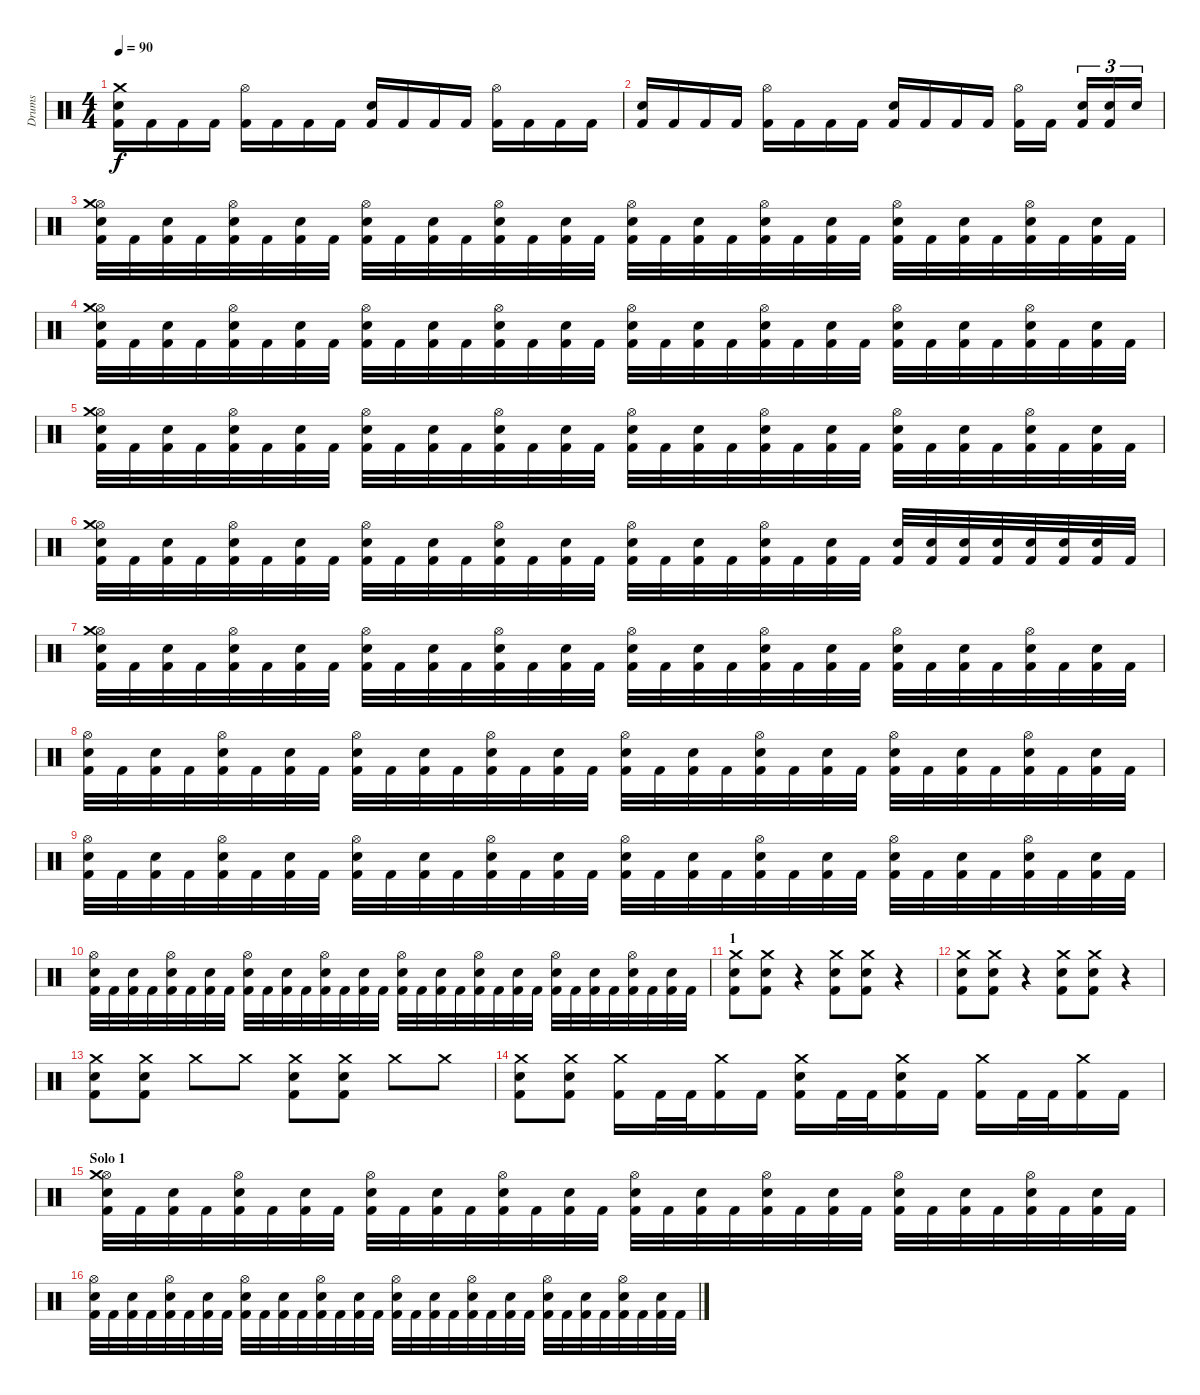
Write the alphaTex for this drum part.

\track ("Drums" "Drums") {instrument percussion}
\staff {score}
\articulation defaults
\ts (4 4)
\tempo 90
\clef neutral
\ks c
("Kick (hit) 2" "Snare (hit) 2" "Crash medium (hit)").16{dy f} "Kick (hit) 2".16 "Kick (hit) 2".16 "Kick (hit) 2".16 ("Kick (hit) 2" "Hi-Hat (open)").16 "Kick (hit) 2".16 "Kick (hit) 2".16 "Kick (hit) 2".16 ("Kick (hit) 2" "Snare (hit) 2").16 "Kick (hit) 2".16 "Kick (hit) 2".16 "Kick (hit) 2".16 ("Kick (hit) 2" "Hi-Hat (open)").16 "Kick (hit) 2".16 "Kick (hit) 2".16 "Kick (hit) 2".16 |
("Kick (hit) 2" "Snare (hit) 2").16 "Kick (hit) 2".16 "Kick (hit) 2".16 "Kick (hit) 2".16 ("Kick (hit) 2" "Hi-Hat (open)").16 "Kick (hit) 2".16 "Kick (hit) 2".16 "Kick (hit) 2".16 ("Kick (hit) 2" "Snare (hit) 2").16 "Kick (hit) 2".16 "Kick (hit) 2".16 "Kick (hit) 2".16 ("Kick (hit) 2" "Hi-Hat (open)").16 "Kick (hit) 2".16 ("Kick (hit) 2" "Snare (hit) 2").16{tu (3 2)} ("Kick (hit) 2" "Snare (hit) 2").16{tu (3 2)} "Snare (hit) 2".16{tu (3 2)} |
("Kick (hit) 2" "Hi-Hat (open)" "Snare (hit) 2" "Crash medium (hit)").32 "Kick (hit) 2".32 ("Kick (hit) 2" "Snare (hit) 2").32 "Kick (hit) 2".32 ("Kick (hit) 2" "Hi-Hat (open)" "Snare (hit) 2").32 "Kick (hit) 2".32 ("Kick (hit) 2" "Snare (hit) 2").32 "Kick (hit) 2".32 ("Kick (hit) 2" "Hi-Hat (open)" "Snare (hit) 2").32 "Kick (hit) 2".32 ("Kick (hit) 2" "Snare (hit) 2").32 "Kick (hit) 2".32 ("Kick (hit) 2" "Hi-Hat (open)" "Snare (hit) 2").32 "Kick (hit) 2".32 ("Kick (hit) 2" "Snare (hit) 2").32 "Kick (hit) 2".32 ("Kick (hit) 2" "Hi-Hat (open)" "Snare (hit) 2").32 "Kick (hit) 2".32 ("Kick (hit) 2" "Snare (hit) 2").32 "Kick (hit) 2".32 ("Kick (hit) 2" "Hi-Hat (open)" "Snare (hit) 2").32 "Kick (hit) 2".32 ("Kick (hit) 2" "Snare (hit) 2").32 "Kick (hit) 2".32 ("Kick (hit) 2" "Hi-Hat (open)" "Snare (hit) 2").32 "Kick (hit) 2".32 ("Kick (hit) 2" "Snare (hit) 2").32 "Kick (hit) 2".32 ("Kick (hit) 2" "Hi-Hat (open)" "Snare (hit) 2").32 "Kick (hit) 2".32 ("Kick (hit) 2" "Snare (hit) 2").32 "Kick (hit) 2".32 |
("Kick (hit) 2" "Hi-Hat (open)" "Snare (hit) 2" "Crash medium (hit)").32 "Kick (hit) 2".32 ("Kick (hit) 2" "Snare (hit) 2").32 "Kick (hit) 2".32 ("Kick (hit) 2" "Hi-Hat (open)" "Snare (hit) 2").32 "Kick (hit) 2".32 ("Kick (hit) 2" "Snare (hit) 2").32 "Kick (hit) 2".32 ("Kick (hit) 2" "Hi-Hat (open)" "Snare (hit) 2").32 "Kick (hit) 2".32 ("Kick (hit) 2" "Snare (hit) 2").32 "Kick (hit) 2".32 ("Kick (hit) 2" "Hi-Hat (open)" "Snare (hit) 2").32 "Kick (hit) 2".32 ("Kick (hit) 2" "Snare (hit) 2").32 "Kick (hit) 2".32 ("Kick (hit) 2" "Hi-Hat (open)" "Snare (hit) 2").32 "Kick (hit) 2".32 ("Kick (hit) 2" "Snare (hit) 2").32 "Kick (hit) 2".32 ("Kick (hit) 2" "Hi-Hat (open)" "Snare (hit) 2").32 "Kick (hit) 2".32 ("Kick (hit) 2" "Snare (hit) 2").32 "Kick (hit) 2".32 ("Kick (hit) 2" "Hi-Hat (open)" "Snare (hit) 2").32 "Kick (hit) 2".32 ("Kick (hit) 2" "Snare (hit) 2").32 "Kick (hit) 2".32 ("Kick (hit) 2" "Hi-Hat (open)" "Snare (hit) 2").32 "Kick (hit) 2".32 ("Kick (hit) 2" "Snare (hit) 2").32 "Kick (hit) 2".32 |
("Kick (hit) 2" "Hi-Hat (open)" "Snare (hit) 2" "Crash medium (hit)").32 "Kick (hit) 2".32 ("Kick (hit) 2" "Snare (hit) 2").32 "Kick (hit) 2".32 ("Kick (hit) 2" "Hi-Hat (open)" "Snare (hit) 2").32 "Kick (hit) 2".32 ("Kick (hit) 2" "Snare (hit) 2").32 "Kick (hit) 2".32 ("Kick (hit) 2" "Hi-Hat (open)" "Snare (hit) 2").32 "Kick (hit) 2".32 ("Kick (hit) 2" "Snare (hit) 2").32 "Kick (hit) 2".32 ("Kick (hit) 2" "Hi-Hat (open)" "Snare (hit) 2").32 "Kick (hit) 2".32 ("Kick (hit) 2" "Snare (hit) 2").32 "Kick (hit) 2".32 ("Kick (hit) 2" "Hi-Hat (open)" "Snare (hit) 2").32 "Kick (hit) 2".32 ("Kick (hit) 2" "Snare (hit) 2").32 "Kick (hit) 2".32 ("Kick (hit) 2" "Hi-Hat (open)" "Snare (hit) 2").32 "Kick (hit) 2".32 ("Kick (hit) 2" "Snare (hit) 2").32 "Kick (hit) 2".32 ("Kick (hit) 2" "Hi-Hat (open)" "Snare (hit) 2").32 "Kick (hit) 2".32 ("Kick (hit) 2" "Snare (hit) 2").32 "Kick (hit) 2".32 ("Kick (hit) 2" "Hi-Hat (open)" "Snare (hit) 2").32 "Kick (hit) 2".32 ("Kick (hit) 2" "Snare (hit) 2").32 "Kick (hit) 2".32 |
("Kick (hit) 2" "Hi-Hat (open)" "Snare (hit) 2" "Crash medium (hit)").32 "Kick (hit) 2".32 ("Kick (hit) 2" "Snare (hit) 2").32 "Kick (hit) 2".32 ("Kick (hit) 2" "Hi-Hat (open)" "Snare (hit) 2").32 "Kick (hit) 2".32 ("Kick (hit) 2" "Snare (hit) 2").32 "Kick (hit) 2".32 ("Kick (hit) 2" "Hi-Hat (open)" "Snare (hit) 2").32 "Kick (hit) 2".32 ("Kick (hit) 2" "Snare (hit) 2").32 "Kick (hit) 2".32 ("Kick (hit) 2" "Hi-Hat (open)" "Snare (hit) 2").32 "Kick (hit) 2".32 ("Kick (hit) 2" "Snare (hit) 2").32 "Kick (hit) 2".32 ("Kick (hit) 2" "Hi-Hat (open)" "Snare (hit) 2").32 "Kick (hit) 2".32 ("Kick (hit) 2" "Snare (hit) 2").32 "Kick (hit) 2".32 ("Kick (hit) 2" "Hi-Hat (open)" "Snare (hit) 2").32 "Kick (hit) 2".32 ("Kick (hit) 2" "Snare (hit) 2").32 "Kick (hit) 2".32 ("Kick (hit) 2" "Snare (hit) 2").32 ("Kick (hit) 2" "Snare (hit) 2").32 ("Kick (hit) 2" "Snare (hit) 2").32 ("Kick (hit) 2" "Snare (hit) 2").32 ("Kick (hit) 2" "Snare (hit) 2").32 ("Kick (hit) 2" "Snare (hit) 2").32 ("Kick (hit) 2" "Snare (hit) 2").32 "Kick (hit) 2".32 |
\section ("" "")
("Kick (hit) 2" "Hi-Hat (open)" "Snare (hit) 2" "Crash medium (hit)").32 "Kick (hit) 2".32 ("Kick (hit) 2" "Snare (hit) 2").32 "Kick (hit) 2".32 ("Kick (hit) 2" "Hi-Hat (open)" "Snare (hit) 2").32 "Kick (hit) 2".32 ("Kick (hit) 2" "Snare (hit) 2").32 "Kick (hit) 2".32 ("Kick (hit) 2" "Hi-Hat (open)" "Snare (hit) 2").32 "Kick (hit) 2".32 ("Kick (hit) 2" "Snare (hit) 2").32 "Kick (hit) 2".32 ("Kick (hit) 2" "Hi-Hat (open)" "Snare (hit) 2").32 "Kick (hit) 2".32 ("Kick (hit) 2" "Snare (hit) 2").32 "Kick (hit) 2".32 ("Kick (hit) 2" "Hi-Hat (open)" "Snare (hit) 2").32 "Kick (hit) 2".32 ("Kick (hit) 2" "Snare (hit) 2").32 "Kick (hit) 2".32 ("Kick (hit) 2" "Hi-Hat (open)" "Snare (hit) 2").32 "Kick (hit) 2".32 ("Kick (hit) 2" "Snare (hit) 2").32 "Kick (hit) 2".32 ("Kick (hit) 2" "Hi-Hat (open)" "Snare (hit) 2").32 "Kick (hit) 2".32 ("Kick (hit) 2" "Snare (hit) 2").32 "Kick (hit) 2".32 ("Kick (hit) 2" "Hi-Hat (open)" "Snare (hit) 2").32 "Kick (hit) 2".32 ("Kick (hit) 2" "Snare (hit) 2").32 "Kick (hit) 2".32 |
("Kick (hit) 2" "Hi-Hat (open)" "Snare (hit) 2").32 "Kick (hit) 2".32 ("Kick (hit) 2" "Snare (hit) 2").32 "Kick (hit) 2".32 ("Kick (hit) 2" "Hi-Hat (open)" "Snare (hit) 2").32 "Kick (hit) 2".32 ("Kick (hit) 2" "Snare (hit) 2").32 "Kick (hit) 2".32 ("Kick (hit) 2" "Hi-Hat (open)" "Snare (hit) 2").32 "Kick (hit) 2".32 ("Kick (hit) 2" "Snare (hit) 2").32 "Kick (hit) 2".32 ("Kick (hit) 2" "Hi-Hat (open)" "Snare (hit) 2").32 "Kick (hit) 2".32 ("Kick (hit) 2" "Snare (hit) 2").32 "Kick (hit) 2".32 ("Kick (hit) 2" "Hi-Hat (open)" "Snare (hit) 2").32 "Kick (hit) 2".32 ("Kick (hit) 2" "Snare (hit) 2").32 "Kick (hit) 2".32 ("Kick (hit) 2" "Hi-Hat (open)" "Snare (hit) 2").32 "Kick (hit) 2".32 ("Kick (hit) 2" "Snare (hit) 2").32 "Kick (hit) 2".32 ("Kick (hit) 2" "Hi-Hat (open)" "Snare (hit) 2").32 "Kick (hit) 2".32 ("Kick (hit) 2" "Snare (hit) 2").32 "Kick (hit) 2".32 ("Kick (hit) 2" "Hi-Hat (open)" "Snare (hit) 2").32 "Kick (hit) 2".32 ("Kick (hit) 2" "Snare (hit) 2").32 "Kick (hit) 2".32 |
("Kick (hit) 2" "Hi-Hat (open)" "Snare (hit) 2").32 "Kick (hit) 2".32 ("Kick (hit) 2" "Snare (hit) 2").32 "Kick (hit) 2".32 ("Kick (hit) 2" "Hi-Hat (open)" "Snare (hit) 2").32 "Kick (hit) 2".32 ("Kick (hit) 2" "Snare (hit) 2").32 "Kick (hit) 2".32 ("Kick (hit) 2" "Hi-Hat (open)" "Snare (hit) 2").32 "Kick (hit) 2".32 ("Kick (hit) 2" "Snare (hit) 2").32 "Kick (hit) 2".32 ("Kick (hit) 2" "Hi-Hat (open)" "Snare (hit) 2").32 "Kick (hit) 2".32 ("Kick (hit) 2" "Snare (hit) 2").32 "Kick (hit) 2".32 ("Kick (hit) 2" "Hi-Hat (open)" "Snare (hit) 2").32 "Kick (hit) 2".32 ("Kick (hit) 2" "Snare (hit) 2").32 "Kick (hit) 2".32 ("Kick (hit) 2" "Hi-Hat (open)" "Snare (hit) 2").32 "Kick (hit) 2".32 ("Kick (hit) 2" "Snare (hit) 2").32 "Kick (hit) 2".32 ("Kick (hit) 2" "Hi-Hat (open)" "Snare (hit) 2").32 "Kick (hit) 2".32 ("Kick (hit) 2" "Snare (hit) 2").32 "Kick (hit) 2".32 ("Kick (hit) 2" "Hi-Hat (open)" "Snare (hit) 2").32 "Kick (hit) 2".32 ("Kick (hit) 2" "Snare (hit) 2").32 "Kick (hit) 2".32 |
("Kick (hit) 2" "Hi-Hat (open)" "Snare (hit) 2").32 "Kick (hit) 2".32 ("Kick (hit) 2" "Snare (hit) 2").32 "Kick (hit) 2".32 ("Kick (hit) 2" "Hi-Hat (open)" "Snare (hit) 2").32 "Kick (hit) 2".32 ("Kick (hit) 2" "Snare (hit) 2").32 "Kick (hit) 2".32 ("Kick (hit) 2" "Hi-Hat (open)" "Snare (hit) 2").32 "Kick (hit) 2".32 ("Kick (hit) 2" "Snare (hit) 2").32 "Kick (hit) 2".32 ("Kick (hit) 2" "Hi-Hat (open)" "Snare (hit) 2").32 "Kick (hit) 2".32 ("Kick (hit) 2" "Snare (hit) 2").32 "Kick (hit) 2".32 ("Kick (hit) 2" "Hi-Hat (open)" "Snare (hit) 2").32 "Kick (hit) 2".32 ("Kick (hit) 2" "Snare (hit) 2").32 "Kick (hit) 2".32 ("Kick (hit) 2" "Hi-Hat (open)" "Snare (hit) 2").32 "Kick (hit) 2".32 ("Kick (hit) 2" "Snare (hit) 2").32 "Kick (hit) 2".32 ("Kick (hit) 2" "Hi-Hat (open)" "Snare (hit) 2").32 "Kick (hit) 2".32 ("Kick (hit) 2" "Snare (hit) 2").32 "Kick (hit) 2".32 ("Kick (hit) 2" "Hi-Hat (open)" "Snare (hit) 2").32 "Kick (hit) 2".32 ("Kick (hit) 2" "Snare (hit) 2").32 "Kick (hit) 2".32 |
\section ("" "1")
("Kick (hit) 2" "Snare (hit) 2" "Crash medium (hit)").8 ("Kick (hit) 2" "Snare (hit) 2" "Crash medium (hit)").8 r.4 ("Kick (hit) 2" "Snare (hit) 2" "Crash medium (hit)").8 ("Kick (hit) 2" "Snare (hit) 2" "Crash medium (hit)").8 r.4 |
("Kick (hit) 2" "Snare (hit) 2" "Crash medium (hit)").8 ("Kick (hit) 2" "Snare (hit) 2" "Crash medium (hit)").8 r.4 ("Kick (hit) 2" "Snare (hit) 2" "Crash medium (hit)").8 ("Kick (hit) 2" "Snare (hit) 2" "Crash medium (hit)").8 r.4 |
("Kick (hit) 2" "Snare (hit) 2" "Crash medium (hit)").8 ("Kick (hit) 2" "Snare (hit) 2" "Crash medium (hit)").8 "Crash medium (hit)".8 "Crash medium (hit)".8 ("Kick (hit) 2" "Snare (hit) 2" "Crash medium (hit)").8 ("Kick (hit) 2" "Snare (hit) 2" "Crash medium (hit)").8 "Crash medium (hit)".8 "Crash medium (hit)".8 |
("Kick (hit) 2" "Snare (hit) 2" "Crash medium (hit)").8 ("Kick (hit) 2" "Snare (hit) 2" "Crash medium (hit)").8 ("Kick (hit) 2" "Crash medium (hit)").16 "Kick (hit) 2".32 "Kick (hit) 2".32 ("Kick (hit) 2" "Crash medium (hit)").16 "Kick (hit) 2".16 ("Kick (hit) 2" "Snare (hit) 2" "Crash medium (hit)").16 "Kick (hit) 2".32 "Kick (hit) 2".32 ("Kick (hit) 2" "Snare (hit) 2" "Crash medium (hit)").16 "Kick (hit) 2".16 ("Kick (hit) 2" "Crash medium (hit)").16 "Kick (hit) 2".32 "Kick (hit) 2".32 ("Kick (hit) 2" "Crash medium (hit)").16 "Kick (hit) 2".16 |
\section ("" "Solo 1")
("Kick (hit) 2" "Hi-Hat (open)" "Snare (hit) 2" "Crash medium (hit)").32 "Kick (hit) 2".32 ("Kick (hit) 2" "Snare (hit) 2").32 "Kick (hit) 2".32 ("Kick (hit) 2" "Hi-Hat (open)" "Snare (hit) 2").32 "Kick (hit) 2".32 ("Kick (hit) 2" "Snare (hit) 2").32 "Kick (hit) 2".32 ("Kick (hit) 2" "Hi-Hat (open)" "Snare (hit) 2").32 "Kick (hit) 2".32 ("Kick (hit) 2" "Snare (hit) 2").32 "Kick (hit) 2".32 ("Kick (hit) 2" "Hi-Hat (open)" "Snare (hit) 2").32 "Kick (hit) 2".32 ("Kick (hit) 2" "Snare (hit) 2").32 "Kick (hit) 2".32 ("Kick (hit) 2" "Hi-Hat (open)" "Snare (hit) 2").32 "Kick (hit) 2".32 ("Kick (hit) 2" "Snare (hit) 2").32 "Kick (hit) 2".32 ("Kick (hit) 2" "Hi-Hat (open)" "Snare (hit) 2").32 "Kick (hit) 2".32 ("Kick (hit) 2" "Snare (hit) 2").32 "Kick (hit) 2".32 ("Kick (hit) 2" "Hi-Hat (open)" "Snare (hit) 2").32 "Kick (hit) 2".32 ("Kick (hit) 2" "Snare (hit) 2").32 "Kick (hit) 2".32 ("Kick (hit) 2" "Hi-Hat (open)" "Snare (hit) 2").32 "Kick (hit) 2".32 ("Kick (hit) 2" "Snare (hit) 2").32 "Kick (hit) 2".32 |
("Kick (hit) 2" "Hi-Hat (open)" "Snare (hit) 2").32 "Kick (hit) 2".32 ("Kick (hit) 2" "Snare (hit) 2").32 "Kick (hit) 2".32 ("Kick (hit) 2" "Hi-Hat (open)" "Snare (hit) 2").32 "Kick (hit) 2".32 ("Kick (hit) 2" "Snare (hit) 2").32 "Kick (hit) 2".32 ("Kick (hit) 2" "Hi-Hat (open)" "Snare (hit) 2").32 "Kick (hit) 2".32 ("Kick (hit) 2" "Snare (hit) 2").32 "Kick (hit) 2".32 ("Kick (hit) 2" "Hi-Hat (open)" "Snare (hit) 2").32 "Kick (hit) 2".32 ("Kick (hit) 2" "Snare (hit) 2").32 "Kick (hit) 2".32 ("Kick (hit) 2" "Hi-Hat (open)" "Snare (hit) 2").32 "Kick (hit) 2".32 ("Kick (hit) 2" "Snare (hit) 2").32 "Kick (hit) 2".32 ("Kick (hit) 2" "Hi-Hat (open)" "Snare (hit) 2").32 "Kick (hit) 2".32 ("Kick (hit) 2" "Snare (hit) 2").32 "Kick (hit) 2".32 ("Kick (hit) 2" "Hi-Hat (open)" "Snare (hit) 2").32 "Kick (hit) 2".32 ("Kick (hit) 2" "Snare (hit) 2").32 "Kick (hit) 2".32 ("Kick (hit) 2" "Hi-Hat (open)" "Snare (hit) 2").32 "Kick (hit) 2".32 ("Kick (hit) 2" "Snare (hit) 2").32 "Kick (hit) 2".32
